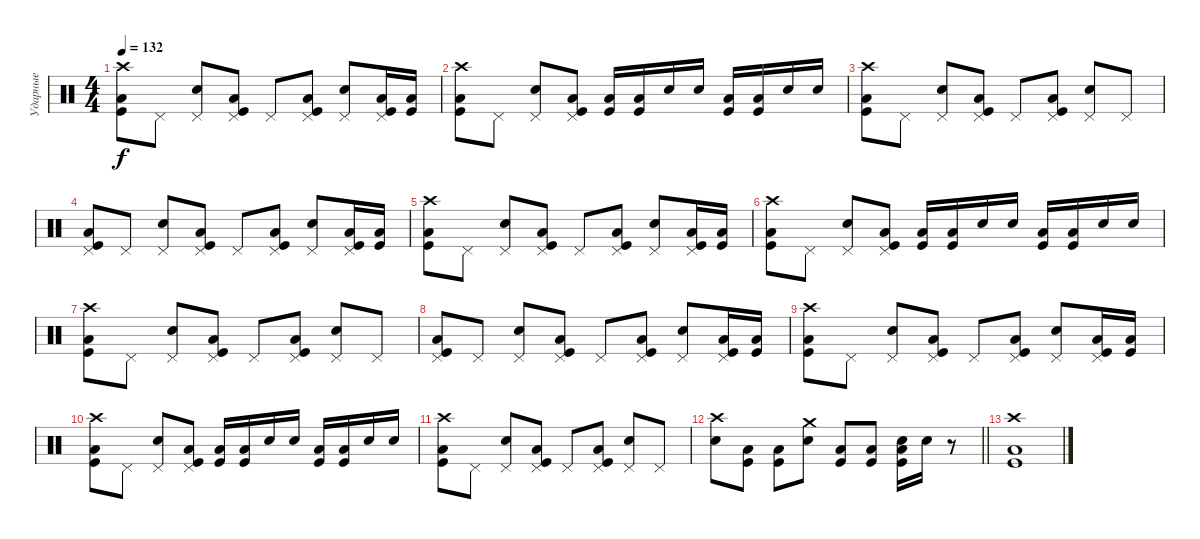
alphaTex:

\track ("Ударные" "Ударные") {instrument percussion}
\staff {score}
\articulation defaults
\ts (4 4)
\tempo 132
\clef neutral
\ks c
("Crash high (hit)" "Low Tom (hit)" "Kick (hit)").8{dy f} "Pedal Hi-Hat (hit)".8 ("Pedal Hi-Hat (hit)" "Snare (hit) 2").8 ("Pedal Hi-Hat (hit)" "Low Tom (hit)" "Kick (hit)").8 "Pedal Hi-Hat (hit)".8 ("Pedal Hi-Hat (hit)" "Low Tom (hit)" "Kick (hit)").8 ("Pedal Hi-Hat (hit)" "Snare (hit) 2").8 ("Pedal Hi-Hat (hit)" "Low Tom (hit)" "Kick (hit)").16 ("Low Tom (hit)" "Kick (hit)").16 |
("Crash high (hit)" "Low Tom (hit)" "Kick (hit)").8 "Pedal Hi-Hat (hit)".8 ("Pedal Hi-Hat (hit)" "Snare (hit) 2").8 ("Pedal Hi-Hat (hit)" "Low Tom (hit)" "Kick (hit)").8 ("Low Tom (hit)" "Kick (hit)").16 ("Low Tom (hit)" "Kick (hit)").16 "Electric Snare (hit)".16 "Electric Snare (hit)".16 ("Low Tom (hit)" "Kick (hit)").16 ("Low Tom (hit)" "Kick (hit)").16 "Electric Snare (hit)".16 "Electric Snare (hit)".16 |
("Crash high (hit)" "Low Tom (hit)" "Kick (hit)").8 "Pedal Hi-Hat (hit)".8 ("Pedal Hi-Hat (hit)" "Snare (hit) 2").8 ("Pedal Hi-Hat (hit)" "Low Tom (hit)" "Kick (hit)").8 "Pedal Hi-Hat (hit)".8 ("Pedal Hi-Hat (hit)" "Low Tom (hit)" "Kick (hit)").8 ("Pedal Hi-Hat (hit)" "Snare (hit) 2").8 "Pedal Hi-Hat (hit)".8 |
("Pedal Hi-Hat (hit)" "Low Tom (hit)" "Kick (hit)").8 "Pedal Hi-Hat (hit)".8 ("Pedal Hi-Hat (hit)" "Snare (hit) 2").8 ("Pedal Hi-Hat (hit)" "Low Tom (hit)" "Kick (hit)").8 "Pedal Hi-Hat (hit)".8 ("Pedal Hi-Hat (hit)" "Low Tom (hit)" "Kick (hit)").8 ("Pedal Hi-Hat (hit)" "Snare (hit) 2").8 ("Pedal Hi-Hat (hit)" "Low Tom (hit)" "Kick (hit)").16 ("Low Tom (hit)" "Kick (hit)").16 |
("Crash high (hit)" "Low Tom (hit)" "Kick (hit)").8 "Pedal Hi-Hat (hit)".8 ("Pedal Hi-Hat (hit)" "Snare (hit) 2").8 ("Pedal Hi-Hat (hit)" "Low Tom (hit)" "Kick (hit)").8 "Pedal Hi-Hat (hit)".8 ("Pedal Hi-Hat (hit)" "Low Tom (hit)" "Kick (hit)").8 ("Pedal Hi-Hat (hit)" "Snare (hit) 2").8 ("Pedal Hi-Hat (hit)" "Low Tom (hit)" "Kick (hit)").16 ("Low Tom (hit)" "Kick (hit)").16 |
("Crash high (hit)" "Low Tom (hit)" "Kick (hit)").8 "Pedal Hi-Hat (hit)".8 ("Pedal Hi-Hat (hit)" "Snare (hit) 2").8 ("Pedal Hi-Hat (hit)" "Low Tom (hit)" "Kick (hit)").8 ("Low Tom (hit)" "Kick (hit)").16 ("Low Tom (hit)" "Kick (hit)").16 "Electric Snare (hit)".16 "Electric Snare (hit)".16 ("Low Tom (hit)" "Kick (hit)").16 ("Low Tom (hit)" "Kick (hit)").16 "Electric Snare (hit)".16 "Electric Snare (hit)".16 |
("Crash high (hit)" "Low Tom (hit)" "Kick (hit)").8 "Pedal Hi-Hat (hit)".8 ("Pedal Hi-Hat (hit)" "Snare (hit) 2").8 ("Pedal Hi-Hat (hit)" "Low Tom (hit)" "Kick (hit)").8 "Pedal Hi-Hat (hit)".8 ("Pedal Hi-Hat (hit)" "Low Tom (hit)" "Kick (hit)").8 ("Pedal Hi-Hat (hit)" "Snare (hit) 2").8 "Pedal Hi-Hat (hit)".8 |
("Pedal Hi-Hat (hit)" "Low Tom (hit)" "Kick (hit)").8 "Pedal Hi-Hat (hit)".8 ("Pedal Hi-Hat (hit)" "Snare (hit) 2").8 ("Pedal Hi-Hat (hit)" "Low Tom (hit)" "Kick (hit)").8 "Pedal Hi-Hat (hit)".8 ("Pedal Hi-Hat (hit)" "Low Tom (hit)" "Kick (hit)").8 ("Pedal Hi-Hat (hit)" "Snare (hit) 2").8 ("Pedal Hi-Hat (hit)" "Low Tom (hit)" "Kick (hit)").16 ("Low Tom (hit)" "Kick (hit)").16 |
("Crash high (hit)" "Low Tom (hit)" "Kick (hit)").8 "Pedal Hi-Hat (hit)".8 ("Pedal Hi-Hat (hit)" "Snare (hit) 2").8 ("Pedal Hi-Hat (hit)" "Low Tom (hit)" "Kick (hit)").8 "Pedal Hi-Hat (hit)".8 ("Pedal Hi-Hat (hit)" "Low Tom (hit)" "Kick (hit)").8 ("Pedal Hi-Hat (hit)" "Snare (hit) 2").8 ("Pedal Hi-Hat (hit)" "Low Tom (hit)" "Kick (hit)").16 ("Low Tom (hit)" "Kick (hit)").16 |
("Crash high (hit)" "Low Tom (hit)" "Kick (hit)").8 "Pedal Hi-Hat (hit)".8 ("Pedal Hi-Hat (hit)" "Snare (hit) 2").8 ("Pedal Hi-Hat (hit)" "Low Tom (hit)" "Kick (hit)").8 ("Low Tom (hit)" "Kick (hit)").16 ("Low Tom (hit)" "Kick (hit)").16 "Electric Snare (hit)".16 "Electric Snare (hit)".16 ("Low Tom (hit)" "Kick (hit)").16 ("Low Tom (hit)" "Kick (hit)").16 "Electric Snare (hit)".16 "Electric Snare (hit)".16 |
("Crash high (hit)" "Low Tom (hit)" "Kick (hit)").8 "Pedal Hi-Hat (hit)".8 ("Pedal Hi-Hat (hit)" "Snare (hit) 2").8 ("Pedal Hi-Hat (hit)" "Low Tom (hit)" "Kick (hit)").8 "Pedal Hi-Hat (hit)".8 ("Pedal Hi-Hat (hit)" "Low Tom (hit)" "Kick (hit)").8 ("Pedal Hi-Hat (hit)" "Snare (hit) 2").8 "Pedal Hi-Hat (hit)".8 |
\barLineRight lightlight
("Crash high (hit)" "Electric Snare (hit)").8 ("Low Tom (hit)" "Kick (hit)").8 ("Low Tom (hit)" "Kick (hit)").8 ("Crash medium (hit)" "Electric Snare (hit)").8 ("Low Tom (hit)" "Kick (hit)").8 ("Low Tom (hit)" "Kick (hit)").8 ("Electric Snare (hit)" "Low Tom (hit)" "Kick (hit)").16 "Electric Snare (hit)".16 r.8 |
("Crash high (hit)" "Low Tom (hit)" "Kick (hit)").1
